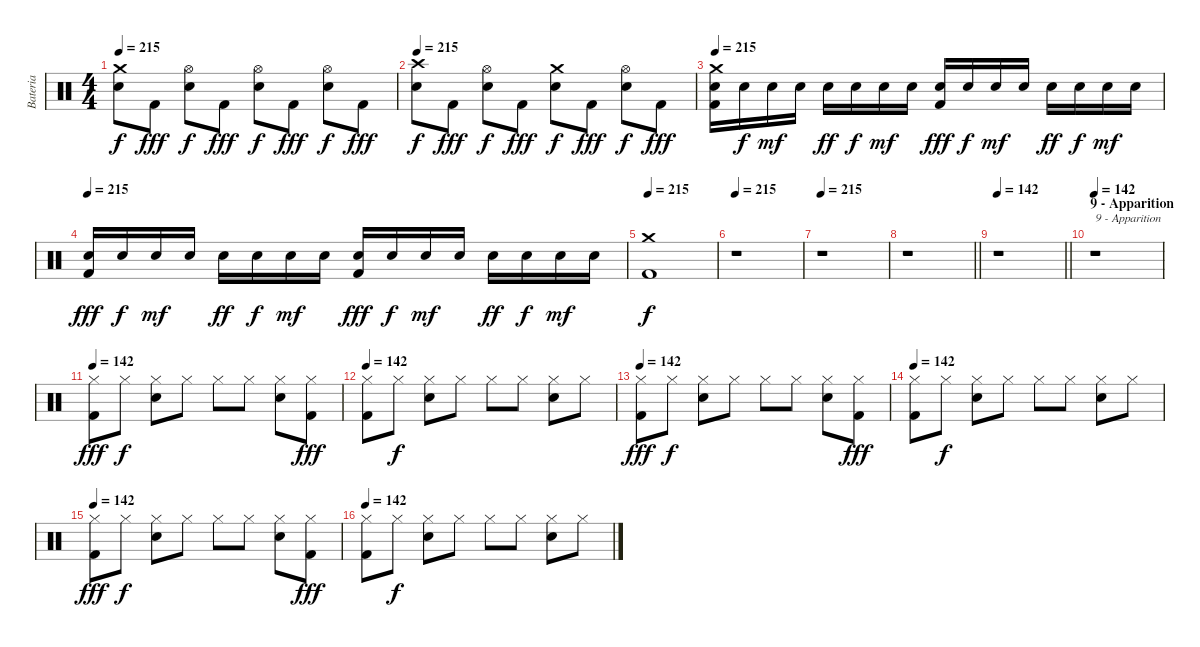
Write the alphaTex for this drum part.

\track ("Bateria" "Bateria") {instrument percussion}
\staff {score}
\articulation defaults
\ts (4 4)
\tempo 215
\clef neutral
\ks c
("Crash medium (hit)" "Electric Snare (hit)").8{dy f} "Kick (hit) 2".8{dy fff} ("Hi-Hat (open)" "Electric Snare (hit)").8{dy f} "Kick (hit) 2".8{dy fff} ("Hi-Hat (open)" "Electric Snare (hit)").8{dy f} "Kick (hit) 2".8{dy fff} ("Hi-Hat (open)" "Electric Snare (hit)").8{dy f} "Kick (hit) 2".8{dy fff} |
\tempo 215
("Crash high (hit)" "Electric Snare (hit)").8{dy f} "Kick (hit) 2".8{dy fff} ("Hi-Hat (open)" "Electric Snare (hit)").8{dy f} "Kick (hit) 2".8{dy fff} ("Crash medium (hit)" "Electric Snare (hit)").8{dy f} "Kick (hit) 2".8{dy fff} ("Hi-Hat (open)" "Electric Snare (hit)").8{dy f} "Kick (hit) 2".8{dy fff} |
\tempo 215
("Crash medium (hit)" "Electric Snare (hit)" "Kick (hit) 2").16 "Electric Snare (hit)".16{dy f} "Electric Snare (hit)".16{dy mf} "Electric Snare (hit)".16 "Electric Snare (hit)".16{dy ff} "Electric Snare (hit)".16{dy f} "Electric Snare (hit)".16{dy mf} "Electric Snare (hit)".16 ("Electric Snare (hit)" "Kick (hit) 2").16{dy fff} "Electric Snare (hit)".16{dy f} "Electric Snare (hit)".16{dy mf} "Electric Snare (hit)".16 "Electric Snare (hit)".16{dy ff} "Electric Snare (hit)".16{dy f} "Electric Snare (hit)".16{dy mf} "Electric Snare (hit)".16 |
\tempo 215
("Electric Snare (hit)" "Kick (hit) 2").16{dy fff} "Electric Snare (hit)".16{dy f} "Electric Snare (hit)".16{dy mf} "Electric Snare (hit)".16 "Electric Snare (hit)".16{dy ff} "Electric Snare (hit)".16{dy f} "Electric Snare (hit)".16{dy mf} "Electric Snare (hit)".16 ("Electric Snare (hit)" "Kick (hit) 2").16{dy fff} "Electric Snare (hit)".16{dy f} "Electric Snare (hit)".16{dy mf} "Electric Snare (hit)".16 "Electric Snare (hit)".16{dy ff} "Electric Snare (hit)".16{dy f} "Electric Snare (hit)".16{dy mf} "Electric Snare (hit)".16 |
\tempo 215
("Crash medium (hit)" "Kick (hit) 2").1{dy f} |
\tempo 215
r.1 |
\tempo 215
r.1 |
\barLineRight lightlight
r.1 |
\tempo 142
\barLineRight lightlight
r.1 |
\section ("" "9 - Apparition")
\tempo 142
r.1{txt "9 - Apparition"} |
\tempo 142
("Hi-Hat (closed)" "Kick (hit) 2").8{dy fff} "Hi-Hat (closed)".8{dy f} ("Hi-Hat (closed)" "Electric Snare (hit)").8 "Hi-Hat (closed)".8 "Hi-Hat (closed)".8 "Hi-Hat (closed)".8 ("Hi-Hat (closed)" "Electric Snare (hit)").8 ("Hi-Hat (closed)" "Kick (hit) 2").8{dy fff} |
\tempo 142
("Hi-Hat (closed)" "Kick (hit) 2").8 "Hi-Hat (closed)".8{dy f} ("Hi-Hat (closed)" "Electric Snare (hit)").8 "Hi-Hat (closed)".8 "Hi-Hat (closed)".8 "Hi-Hat (closed)".8 ("Hi-Hat (closed)" "Electric Snare (hit)").8 "Hi-Hat (closed)".8 |
\tempo 142
("Hi-Hat (closed)" "Kick (hit) 2").8{dy fff} "Hi-Hat (closed)".8{dy f} ("Hi-Hat (closed)" "Electric Snare (hit)").8 "Hi-Hat (closed)".8 "Hi-Hat (closed)".8 "Hi-Hat (closed)".8 ("Hi-Hat (closed)" "Electric Snare (hit)").8 ("Hi-Hat (closed)" "Kick (hit) 2").8{dy fff} |
\tempo 142
("Hi-Hat (closed)" "Kick (hit) 2").8 "Hi-Hat (closed)".8{dy f} ("Hi-Hat (closed)" "Electric Snare (hit)").8 "Hi-Hat (closed)".8 "Hi-Hat (closed)".8 "Hi-Hat (closed)".8 ("Hi-Hat (closed)" "Electric Snare (hit)").8 "Hi-Hat (closed)".8 |
\tempo 142
("Hi-Hat (closed)" "Kick (hit) 2").8{dy fff} "Hi-Hat (closed)".8{dy f} ("Hi-Hat (closed)" "Electric Snare (hit)").8 "Hi-Hat (closed)".8 "Hi-Hat (closed)".8 "Hi-Hat (closed)".8 ("Hi-Hat (closed)" "Electric Snare (hit)").8 ("Hi-Hat (closed)" "Kick (hit) 2").8{dy fff} |
\tempo 142
("Hi-Hat (closed)" "Kick (hit) 2").8 "Hi-Hat (closed)".8{dy f} ("Hi-Hat (closed)" "Electric Snare (hit)").8 "Hi-Hat (closed)".8 "Hi-Hat (closed)".8 "Hi-Hat (closed)".8 ("Hi-Hat (closed)" "Electric Snare (hit)").8 "Hi-Hat (closed)".8
